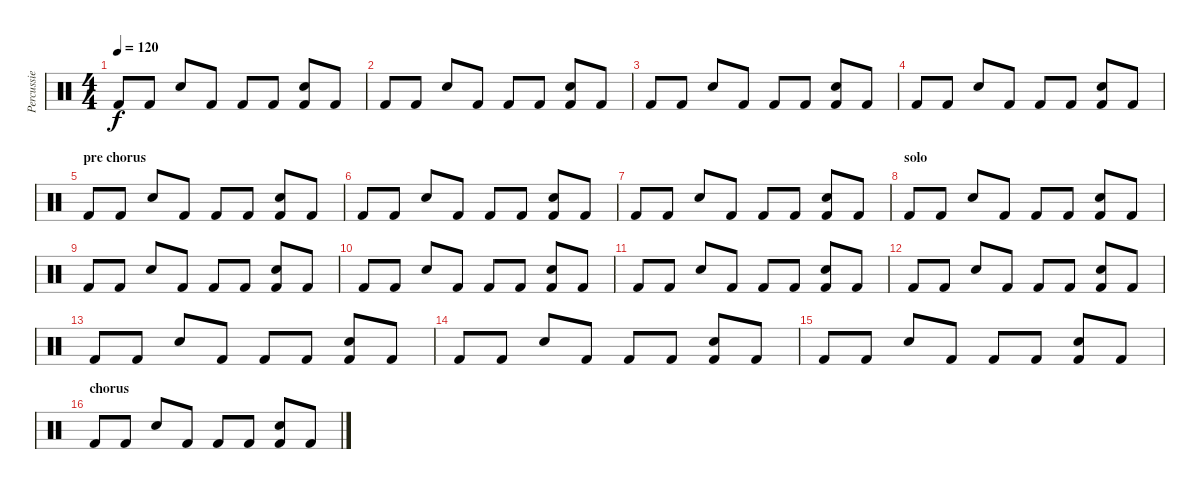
\track ("Percussie" "Percussie") {instrument percussion}
\staff {score}
\articulation defaults
\ts (4 4)
\tempo 120
\clef neutral
\ks c "Kick (hit) 2".8{dy f} "Kick (hit) 2".8 "Snare (hit) 2".8 "Kick (hit) 2".8 "Kick (hit) 2".8 "Kick (hit) 2".8
("Snare (hit) 2" "Kick (hit) 2").8 "Kick (hit) 2".8 |
"Kick (hit) 2".8 "Kick (hit) 2".8 "Snare (hit) 2".8 "Kick (hit) 2".8 "Kick (hit) 2".8 "Kick (hit) 2".8 ("Snare (hit) 2" "Kick (hit) 2").8 "Kick (hit) 2".8 |
"Kick (hit) 2".8 "Kick (hit) 2".8 "Snare (hit) 2".8 "Kick (hit) 2".8 "Kick (hit) 2".8 "Kick (hit) 2".8 ("Snare (hit) 2" "Kick (hit) 2").8 "Kick (hit) 2".8 |
"Kick (hit) 2".8 "Kick (hit) 2".8 "Snare (hit) 2".8 "Kick (hit) 2".8 "Kick (hit) 2".8 "Kick (hit) 2".8 ("Snare (hit) 2" "Kick (hit) 2").8 "Kick (hit) 2".8 |
\section ("" "pre chorus")
"Kick (hit) 2".8 "Kick (hit) 2".8 "Snare (hit) 2".8 "Kick (hit) 2".8 "Kick (hit) 2".8 "Kick (hit) 2".8 ("Snare (hit) 2" "Kick (hit) 2").8 "Kick (hit) 2".8 |
"Kick (hit) 2".8 "Kick (hit) 2".8 "Snare (hit) 2".8 "Kick (hit) 2".8 "Kick (hit) 2".8 "Kick (hit) 2".8 ("Snare (hit) 2" "Kick (hit) 2").8 "Kick (hit) 2".8 |
"Kick (hit) 2".8 "Kick (hit) 2".8 "Snare (hit) 2".8 "Kick (hit) 2".8 "Kick (hit) 2".8 "Kick (hit) 2".8 ("Snare (hit) 2" "Kick (hit) 2").8 "Kick (hit) 2".8 |
\section ("" "solo")
"Kick (hit) 2".8 "Kick (hit) 2".8 "Snare (hit) 2".8 "Kick (hit) 2".8 "Kick (hit) 2".8 "Kick (hit) 2".8 ("Snare (hit) 2" "Kick (hit) 2").8 "Kick (hit) 2".8 |
"Kick (hit) 2".8 "Kick (hit) 2".8 "Snare (hit) 2".8 "Kick (hit) 2".8 "Kick (hit) 2".8 "Kick (hit) 2".8 ("Snare (hit) 2" "Kick (hit) 2").8 "Kick (hit) 2".8 |
"Kick (hit) 2".8 "Kick (hit) 2".8 "Snare (hit) 2".8 "Kick (hit) 2".8 "Kick (hit) 2".8 "Kick (hit) 2".8 ("Snare (hit) 2" "Kick (hit) 2").8 "Kick (hit) 2".8 |
"Kick (hit) 2".8 "Kick (hit) 2".8 "Snare (hit) 2".8 "Kick (hit) 2".8 "Kick (hit) 2".8 "Kick (hit) 2".8 ("Snare (hit) 2" "Kick (hit) 2").8 "Kick (hit) 2".8 |
"Kick (hit) 2".8 "Kick (hit) 2".8 "Snare (hit) 2".8 "Kick (hit) 2".8 "Kick (hit) 2".8 "Kick (hit) 2".8 ("Snare (hit) 2" "Kick (hit) 2").8 "Kick (hit) 2".8 |
"Kick (hit) 2".8 "Kick (hit) 2".8 "Snare (hit) 2".8 "Kick (hit) 2".8 "Kick (hit) 2".8 "Kick (hit) 2".8 ("Snare (hit) 2" "Kick (hit) 2").8 "Kick (hit) 2".8 |
"Kick (hit) 2".8 "Kick (hit) 2".8 "Snare (hit) 2".8 "Kick (hit) 2".8 "Kick (hit) 2".8 "Kick (hit) 2".8 ("Snare (hit) 2" "Kick (hit) 2").8 "Kick (hit) 2".8 |
"Kick (hit) 2".8 "Kick (hit) 2".8 "Snare (hit) 2".8 "Kick (hit) 2".8 "Kick (hit) 2".8 "Kick (hit) 2".8 ("Snare (hit) 2" "Kick (hit) 2").8 "Kick (hit) 2".8 |
\section ("" "chorus")
"Kick (hit) 2".8 "Kick (hit) 2".8 "Snare (hit) 2".8 "Kick (hit) 2".8 "Kick (hit) 2".8 "Kick (hit) 2".8 ("Snare (hit) 2" "Kick (hit) 2").8 "Kick (hit) 2".8
